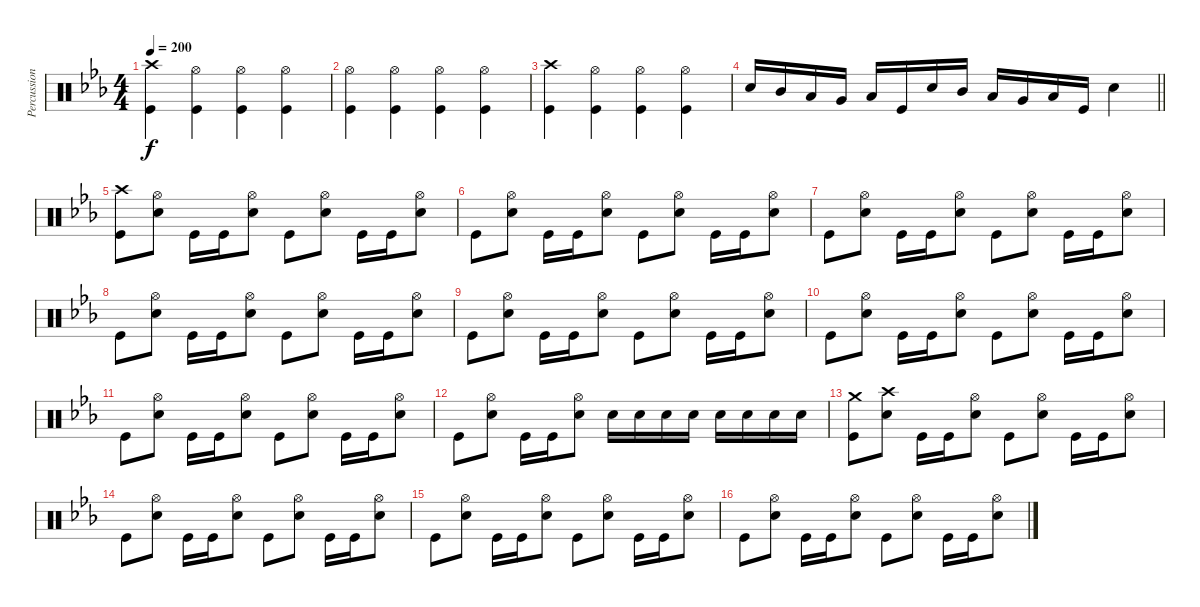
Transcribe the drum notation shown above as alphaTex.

\track ("Percussion" "Percussion") {instrument percussion}
\staff {score}
\articulation defaults
\ts (4 4)
\tempo 200
\clef neutral
\ks eb
("Crash high (hit)" "Kick (hit)").4{dy f} ("Hi-Hat (open)" "Kick (hit)").4 ("Hi-Hat (open)" "Kick (hit)").4 ("Hi-Hat (open)" "Kick (hit)").4 |
("Hi-Hat (open)" "Kick (hit)").4 ("Hi-Hat (open)" "Kick (hit)").4 ("Hi-Hat (open)" "Kick (hit)").4 ("Hi-Hat (open)" "Kick (hit)").4 |
("Crash high (hit)" "Kick (hit)").4 ("Hi-Hat (open)" "Kick (hit)").4 ("Hi-Hat (open)" "Kick (hit)").4 ("Hi-Hat (open)" "Kick (hit)").4 |
\barLineRight lightlight "Snare (hit) 2".16 "Mid Tom (hit)".16 "Low Tom (hit)".16 "Very Low Tom (hit)".16 "Low Tom (hit)".16 "Kick (hit)".16 "Snare (hit) 2".16 "Mid Tom (hit)".16 "Low Tom (hit)".16 "Very Low Tom (hit)".16 "Low Tom (hit)".16 "Kick (hit)".16 "Snare (hit) 2".4
|
("Crash high (hit)" "Kick (hit)").8 ("Hi-Hat (open)" "Snare (hit) 2").8 "Kick (hit)".16 "Kick (hit)".16 ("Hi-Hat (open)" "Snare (hit) 2").8 "Kick (hit)".8 ("Hi-Hat (open)" "Snare (hit) 2").8 "Kick (hit)".16 "Kick (hit)".16 ("Hi-Hat (open)" "Snare (hit) 2").8 |
"Kick (hit)".8 ("Hi-Hat (open)" "Snare (hit) 2").8 "Kick (hit)".16 "Kick (hit)".16 ("Hi-Hat (open)" "Snare (hit) 2").8 "Kick (hit)".8 ("Hi-Hat (open)" "Snare (hit) 2").8 "Kick (hit)".16 "Kick (hit)".16 ("Hi-Hat (open)" "Snare (hit) 2").8 |
"Kick (hit)".8 ("Hi-Hat (open)" "Snare (hit) 2").8 "Kick (hit)".16 "Kick (hit)".16 ("Hi-Hat (open)" "Snare (hit) 2").8 "Kick (hit)".8 ("Hi-Hat (open)" "Snare (hit) 2").8 "Kick (hit)".16 "Kick (hit)".16 ("Hi-Hat (open)" "Snare (hit) 2").8 |
"Kick (hit)".8 ("Hi-Hat (open)" "Snare (hit) 2").8 "Kick (hit)".16 "Kick (hit)".16 ("Hi-Hat (open)" "Snare (hit) 2").8 "Kick (hit)".8 ("Hi-Hat (open)" "Snare (hit) 2").8 "Kick (hit)".16 "Kick (hit)".16 ("Hi-Hat (open)" "Snare (hit) 2").8 |
"Kick (hit)".8 ("Hi-Hat (open)" "Snare (hit) 2").8 "Kick (hit)".16 "Kick (hit)".16 ("Hi-Hat (open)" "Snare (hit) 2").8 "Kick (hit)".8 ("Hi-Hat (open)" "Snare (hit) 2").8 "Kick (hit)".16 "Kick (hit)".16 ("Hi-Hat (open)" "Snare (hit) 2").8 |
"Kick (hit)".8 ("Hi-Hat (open)" "Snare (hit) 2").8 "Kick (hit)".16 "Kick (hit)".16 ("Hi-Hat (open)" "Snare (hit) 2").8 "Kick (hit)".8 ("Hi-Hat (open)" "Snare (hit) 2").8 "Kick (hit)".16 "Kick (hit)".16 ("Hi-Hat (open)" "Snare (hit) 2").8 |
"Kick (hit)".8 ("Hi-Hat (open)" "Snare (hit) 2").8 "Kick (hit)".16 "Kick (hit)".16 ("Hi-Hat (open)" "Snare (hit) 2").8 "Kick (hit)".8 ("Hi-Hat (open)" "Snare (hit) 2").8 "Kick (hit)".16 "Kick (hit)".16 ("Hi-Hat (open)" "Snare (hit) 2").8 |
"Kick (hit)".8 ("Hi-Hat (open)" "Snare (hit) 2").8 "Kick (hit)".16 "Kick (hit)".16 ("Hi-Hat (open)" "Snare (hit) 2").8 "Snare (hit) 2".16 "Snare (hit) 2".16 "Snare (hit) 2".16 "Snare (hit) 2".16 "Snare (hit) 2".16 "Snare (hit) 2".16 "Snare (hit) 2".16 "Snare (hit) 2".16 |
("Crash medium (hit)" "Kick (hit)").8 ("Crash high (hit)" "Snare (hit) 2").8 "Kick (hit)".16 "Kick (hit)".16 ("Hi-Hat (open)" "Snare (hit) 2").8 "Kick (hit)".8 ("Hi-Hat (open)" "Snare (hit) 2").8 "Kick (hit)".16 "Kick (hit)".16 ("Hi-Hat (open)" "Snare (hit) 2").8 |
"Kick (hit)".8 ("Hi-Hat (open)" "Snare (hit) 2").8 "Kick (hit)".16 "Kick (hit)".16 ("Hi-Hat (open)" "Snare (hit) 2").8 "Kick (hit)".8 ("Hi-Hat (open)" "Snare (hit) 2").8 "Kick (hit)".16 "Kick (hit)".16 ("Hi-Hat (open)" "Snare (hit) 2").8 |
"Kick (hit)".8 ("Hi-Hat (open)" "Snare (hit) 2").8 "Kick (hit)".16 "Kick (hit)".16 ("Hi-Hat (open)" "Snare (hit) 2").8 "Kick (hit)".8 ("Hi-Hat (open)" "Snare (hit) 2").8 "Kick (hit)".16 "Kick (hit)".16 ("Hi-Hat (open)" "Snare (hit) 2").8 |
"Kick (hit)".8 ("Hi-Hat (open)" "Snare (hit) 2").8 "Kick (hit)".16 "Kick (hit)".16 ("Hi-Hat (open)" "Snare (hit) 2").8 "Kick (hit)".8 ("Hi-Hat (open)" "Snare (hit) 2").8 "Kick (hit)".16 "Kick (hit)".16 ("Hi-Hat (open)" "Snare (hit) 2").8
